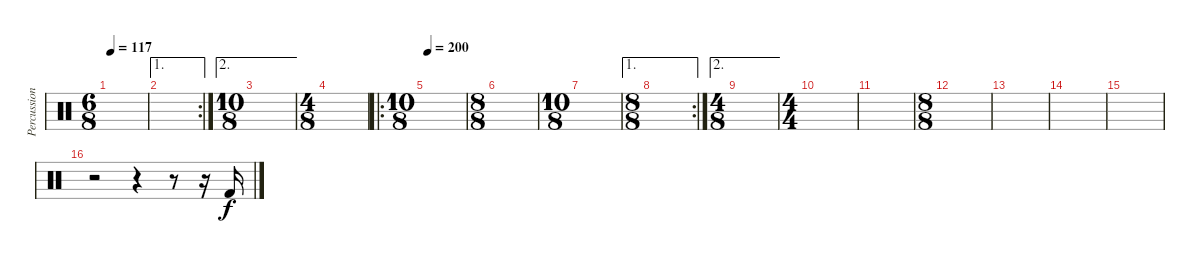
\track ("Percussions" "Percussion") {instrument percussion}
\staff {score}
\articulation defaults
\ts (6 8)
\tempo 117
\clef neutral
\ks c
|
\ae 1
\rc 2
|
\ae 2
\ts (10 8)
|
\ts (4 8)
|
\ro
\ts (10 8)
\tempo 200
|
\ts (8 8)
|
\ts (10 8)
|
\ae 1
\rc 2
\ts (8 8)
|
\ae 2
\ts (4 8)
|
\ts (4 4)
|
|
\ts (8 8)
|
|
|
|
r.2 r.4 r.8 r.16 "Kick (hit) 2".16
